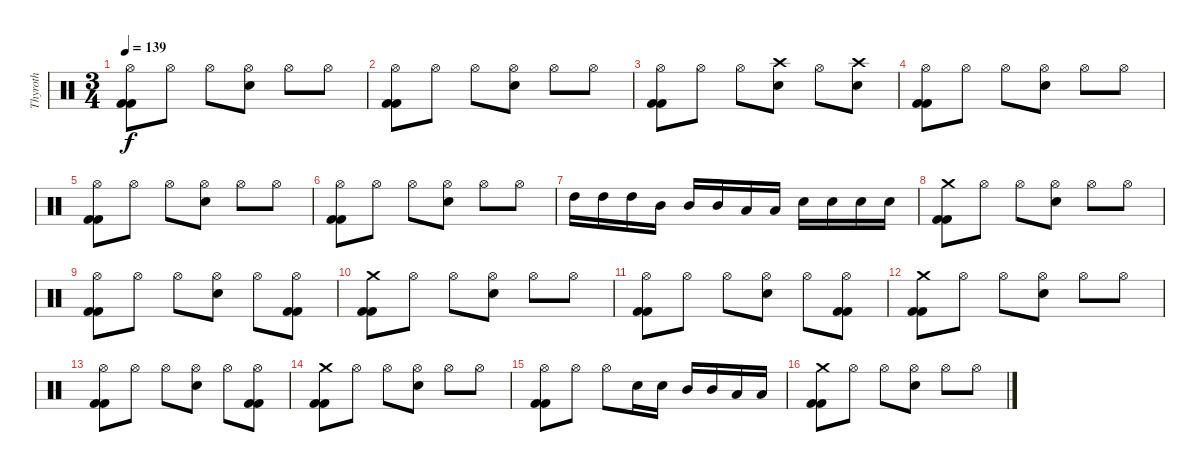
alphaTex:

\track ("Thyroth" "Thyroth") {instrument percussion}
\staff {score}
\articulation defaults
\ts (3 4)
\tempo 139
\clef neutral
\ks c
("Kick (hit) 2" "Kick (hit) 2" "Hi-Hat (open)").8{dy f} "Hi-Hat (open)".8 "Hi-Hat (open)".8 ("Snare (hit) 2" "Hi-Hat (open)").8 "Hi-Hat (open)".8 "Hi-Hat (open)".8 |
("Kick (hit) 2" "Kick (hit) 2" "Hi-Hat (open)").8 "Hi-Hat (open)".8 "Hi-Hat (open)".8 ("Snare (hit) 2" "Hi-Hat (open)").8 "Hi-Hat (open)".8 "Hi-Hat (open)".8 |
("Kick (hit) 2" "Kick (hit) 2" "Hi-Hat (open)").8 "Hi-Hat (open)".8 "Hi-Hat (open)".8 ("Snare (hit) 2" "Crash high (hit)").8 "Hi-Hat (open)".8 ("Snare (hit) 2" "Crash high (hit)").8 |
("Kick (hit) 2" "Kick (hit) 2" "Hi-Hat (open)").8 "Hi-Hat (open)".8 "Hi-Hat (open)".8 ("Snare (hit) 2" "Hi-Hat (open)").8 "Hi-Hat (open)".8 "Hi-Hat (open)".8 |
("Kick (hit) 2" "Kick (hit) 2" "Hi-Hat (open)").8 "Hi-Hat (open)".8 "Hi-Hat (open)".8 ("Snare (hit) 2" "Hi-Hat (open)").8 "Hi-Hat (open)".8 "Hi-Hat (open)".8 |
("Kick (hit) 2" "Kick (hit) 2" "Hi-Hat (open)").8 "Hi-Hat (open)".8 "Hi-Hat (open)".8 ("Snare (hit) 2" "Hi-Hat (open)").8 "Hi-Hat (open)".8 "Hi-Hat (open)".8 |
"High Tom (hit)".16 "High Tom (hit)".16 "High Tom (hit)".16 "Mid Tom (hit)".16 "Mid Tom (hit)".16 "Mid Tom (hit)".16 "Low Tom (hit)".16 "Low Tom (hit)".16 "Snare (hit) 2".16 "Snare (hit) 2".16 "Snare (hit) 2".16 "Snare (hit) 2".16 |
("Kick (hit) 2" "Kick (hit) 2" "Crash medium (hit)").8 "Hi-Hat (open)".8 "Hi-Hat (open)".8 ("Snare (hit) 2" "Hi-Hat (open)").8 "Hi-Hat (open)".8 "Hi-Hat (open)".8 |
("Kick (hit) 2" "Kick (hit) 2" "Hi-Hat (open)").8 "Hi-Hat (open)".8 "Hi-Hat (open)".8 ("Snare (hit) 2" "Hi-Hat (open)").8 "Hi-Hat (open)".8 ("Kick (hit) 2" "Kick (hit) 2" "Hi-Hat (open)").8 |
("Kick (hit) 2" "Kick (hit) 2" "Crash medium (hit)").8 "Hi-Hat (open)".8 "Hi-Hat (open)".8 ("Snare (hit) 2" "Hi-Hat (open)").8 "Hi-Hat (open)".8 "Hi-Hat (open)".8 |
("Kick (hit) 2" "Kick (hit) 2" "Hi-Hat (open)").8 "Hi-Hat (open)".8 "Hi-Hat (open)".8 ("Snare (hit) 2" "Hi-Hat (open)").8 "Hi-Hat (open)".8 ("Kick (hit) 2" "Kick (hit) 2" "Hi-Hat (open)").8 |
("Kick (hit) 2" "Kick (hit) 2" "Crash medium (hit)").8 "Hi-Hat (open)".8 "Hi-Hat (open)".8 ("Snare (hit) 2" "Hi-Hat (open)").8 "Hi-Hat (open)".8 "Hi-Hat (open)".8 |
("Kick (hit) 2" "Kick (hit) 2" "Hi-Hat (open)").8 "Hi-Hat (open)".8 "Hi-Hat (open)".8 ("Snare (hit) 2" "Hi-Hat (open)").8 "Hi-Hat (open)".8 ("Kick (hit) 2" "Kick (hit) 2" "Hi-Hat (open)").8 |
("Kick (hit) 2" "Kick (hit) 2" "Crash medium (hit)").8 "Hi-Hat (open)".8 "Hi-Hat (open)".8 ("Snare (hit) 2" "Hi-Hat (open)").8 "Hi-Hat (open)".8 "Hi-Hat (open)".8 |
("Kick (hit) 2" "Kick (hit) 2" "Hi-Hat (open)").8 "Hi-Hat (open)".8 "Hi-Hat (open)".8 "Snare (hit) 2".16 "Snare (hit) 2".16 "Mid Tom (hit)".16 "Mid Tom (hit)".16 "Low Tom (hit)".16 "Low Tom (hit)".16 |
("Kick (hit) 2" "Kick (hit) 2" "Crash medium (hit)").8 "Hi-Hat (open)".8 "Hi-Hat (open)".8 ("Snare (hit) 2" "Hi-Hat (open)").8 "Hi-Hat (open)".8 "Hi-Hat (open)".8
